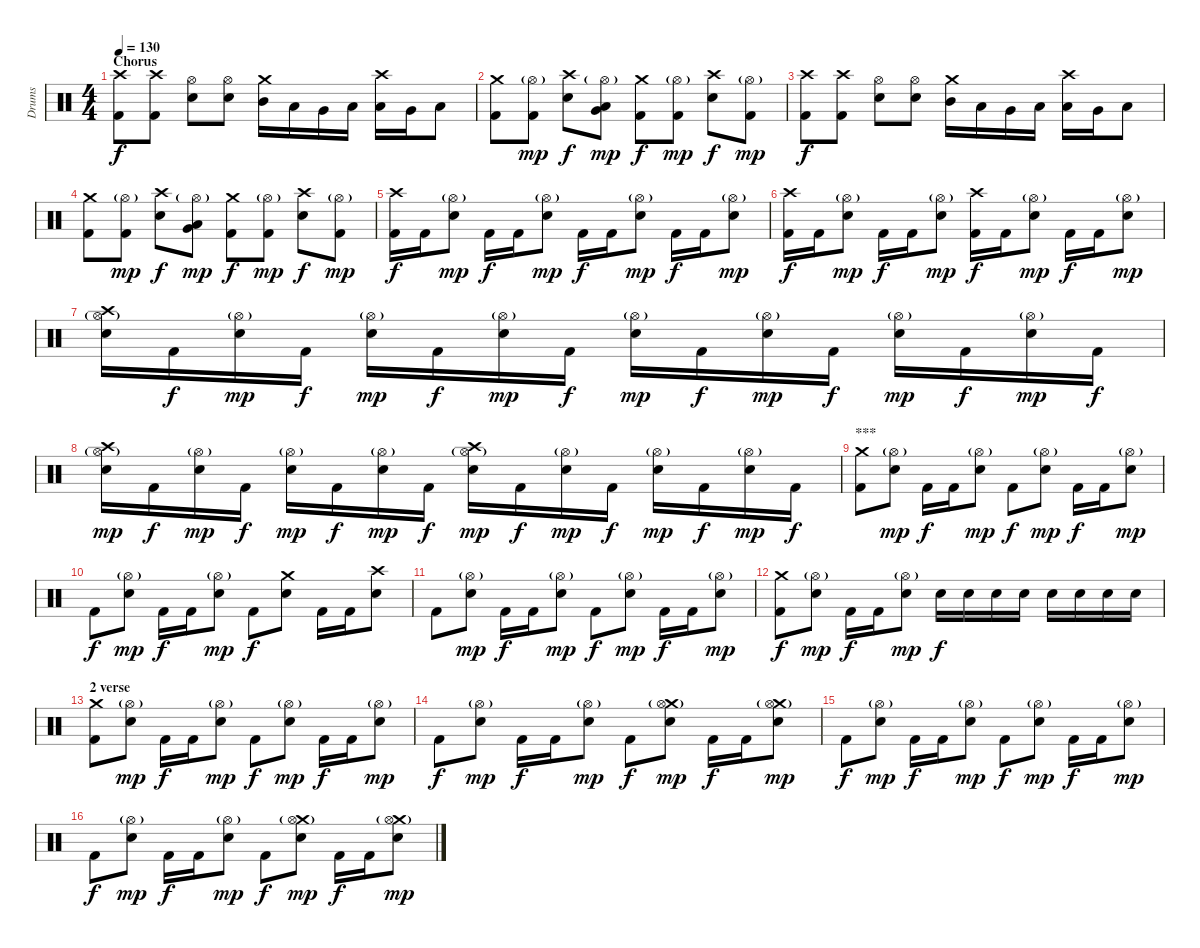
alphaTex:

\track ("Drums" "Drums") {instrument percussion}
\staff {score}
\articulation defaults
\ts (4 4)
\section ("" "Chorus")
\tempo 130
\clef neutral
\ks c
("Crash high (hit)" "Kick (hit) 2").8{dy f} ("Crash high (hit)" "Kick (hit) 2").8 ("Hi-Hat (open)" "Electric Snare (hit)").8 ("Hi-Hat (open)" "Electric Snare (hit)").8 ("Crash medium (hit)" "Mid Tom (hit)").16 "Low Tom (hit)".16 "Very Low Tom (hit)".16 "Low Floor Tom (hit)".16 ("Crash high (hit)" "Low Tom (hit)").16 "Very Low Tom (hit)".16 "Low Floor Tom (hit)".8 |
("Crash medium (hit)" "Kick (hit) 2").8 ("Hi-Hat (open)"{g} "Kick (hit) 2").8{dy mp} ("Crash high (hit)" "Electric Snare (hit)").8{dy f} ("Hi-Hat (open)"{g} "Low Tom (hit)" "Very Low Tom (hit)").8{dy mp} ("Crash medium (hit)" "Kick (hit) 2").8{dy f} ("Hi-Hat (open)"{g} "Kick (hit) 2").8{dy mp} ("Crash high (hit)" "Electric Snare (hit)").8{dy f} ("Hi-Hat (open)"{g} "Kick (hit) 2").8{dy mp} |
("Crash high (hit)" "Kick (hit) 2").8{dy f} ("Crash high (hit)" "Kick (hit) 2").8 ("Hi-Hat (open)" "Electric Snare (hit)").8 ("Hi-Hat (open)" "Electric Snare (hit)").8 ("Crash medium (hit)" "Mid Tom (hit)").16 "Low Tom (hit)".16 "Very Low Tom (hit)".16 "Low Floor Tom (hit)".16 ("Crash high (hit)" "Low Tom (hit)").16 "Very Low Tom (hit)".16 "Low Floor Tom (hit)".8 |
("Crash medium (hit)" "Kick (hit) 2").8 ("Hi-Hat (open)"{g} "Kick (hit) 2").8{dy mp} ("Crash high (hit)" "Electric Snare (hit)").8{dy f} ("Hi-Hat (open)"{g} "Low Tom (hit)" "Very Low Tom (hit)").8{dy mp} ("Crash medium (hit)" "Kick (hit) 2").8{dy f} ("Hi-Hat (open)"{g} "Kick (hit) 2").8{dy mp} ("Crash high (hit)" "Electric Snare (hit)").8{dy f} ("Hi-Hat (open)"{g} "Kick (hit) 2").8{dy mp} |
("Crash high (hit)" "Kick (hit) 2").16{dy f} "Kick (hit) 2".16 ("Hi-Hat (open)"{g} "Electric Snare (hit)").8{dy mp} "Kick (hit) 2".16{dy f} "Kick (hit) 2".16 ("Hi-Hat (open)"{g} "Electric Snare (hit)").8{dy mp} "Kick (hit) 2".16{dy f} "Kick (hit) 2".16 ("Hi-Hat (open)"{g} "Electric Snare (hit)").8{dy mp} "Kick (hit) 2".16{dy f} "Kick (hit) 2".16 ("Hi-Hat (open)"{g} "Electric Snare (hit)").8{dy mp} |
("Crash high (hit)" "Kick (hit) 2").16{dy f} "Kick (hit) 2".16 ("Hi-Hat (open)"{g} "Electric Snare (hit)").8{dy mp} "Kick (hit) 2".16{dy f} "Kick (hit) 2".16 ("Hi-Hat (open)"{g} "Electric Snare (hit)").8{dy mp} ("Crash high (hit)" "Kick (hit) 2").16{dy f} "Kick (hit) 2".16 ("Hi-Hat (open)"{g} "Electric Snare (hit)").8{dy mp} "Kick (hit) 2".16{dy f} "Kick (hit) 2".16 ("Hi-Hat (open)"{g} "Electric Snare (hit)").8{dy mp} |
("Hi-Hat (open)"{g} "Crash high (hit)" "Electric Snare (hit)").16 "Kick (hit) 2".16{dy f} ("Hi-Hat (open)"{g} "Electric Snare (hit)").16{dy mp} "Kick (hit) 2".16{dy f} ("Hi-Hat (open)"{g} "Electric Snare (hit)").16{dy mp} "Kick (hit) 2".16{dy f} ("Hi-Hat (open)"{g} "Electric Snare (hit)").16{dy mp} "Kick (hit) 2".16{dy f} ("Hi-Hat (open)"{g} "Electric Snare (hit)").16{dy mp} "Kick (hit) 2".16{dy f} ("Hi-Hat (open)"{g} "Electric Snare (hit)").16{dy mp} "Kick (hit) 2".16{dy f} ("Hi-Hat (open)"{g} "Electric Snare (hit)").16{dy mp} "Kick (hit) 2".16{dy f} ("Hi-Hat (open)"{g} "Electric Snare (hit)").16{dy mp} "Kick (hit) 2".16{dy f} |
("Hi-Hat (open)"{g} "Crash high (hit)" "Electric Snare (hit)").16{dy mp} "Kick (hit) 2".16{dy f} ("Hi-Hat (open)"{g} "Electric Snare (hit)").16{dy mp} "Kick (hit) 2".16{dy f} ("Hi-Hat (open)"{g} "Electric Snare (hit)").16{dy mp} "Kick (hit) 2".16{dy f} ("Hi-Hat (open)"{g} "Electric Snare (hit)").16{dy mp} "Kick (hit) 2".16{dy f} ("Hi-Hat (open)"{g} "Crash high (hit)" "Electric Snare (hit)").16{dy mp} "Kick (hit) 2".16{dy f} ("Hi-Hat (open)"{g} "Electric Snare (hit)").16{dy mp} "Kick (hit) 2".16{dy f} ("Hi-Hat (open)"{g} "Electric Snare (hit)").16{dy mp} "Kick (hit) 2".16{dy f} ("Hi-Hat (open)"{g} "Electric Snare (hit)").16{dy mp} "Kick (hit) 2".16{dy f} |
\section ("" "***")
("Crash medium (hit)" "Kick (hit) 2").8 ("Hi-Hat (open)"{g} "Electric Snare (hit)").8{dy mp} "Kick (hit) 2".16{dy f} "Kick (hit) 2".16 ("Hi-Hat (open)"{g} "Electric Snare (hit)").8{dy mp} "Kick (hit) 2".8{dy f} ("Hi-Hat (open)"{g} "Electric Snare (hit)").8{dy mp} "Kick (hit) 2".16{dy f} "Kick (hit) 2".16 ("Hi-Hat (open)"{g} "Electric Snare (hit)").8{dy mp} |
"Kick (hit) 2".8{dy f} ("Hi-Hat (open)"{g} "Electric Snare (hit)").8{dy mp} "Kick (hit) 2".16{dy f} "Kick (hit) 2".16 ("Hi-Hat (open)"{g} "Electric Snare (hit)").8{dy mp} "Kick (hit) 2".8{dy f} ("Crash medium (hit)" "Electric Snare (hit)").8 "Kick (hit) 2".16 "Kick (hit) 2".16 ("Crash high (hit)" "Electric Snare (hit)").8 |
"Kick (hit) 2".8 ("Hi-Hat (open)"{g} "Electric Snare (hit)").8{dy mp} "Kick (hit) 2".16{dy f} "Kick (hit) 2".16 ("Hi-Hat (open)"{g} "Electric Snare (hit)").8{dy mp} "Kick (hit) 2".8{dy f} ("Hi-Hat (open)"{g} "Electric Snare (hit)").8{dy mp} "Kick (hit) 2".16{dy f} "Kick (hit) 2".16 ("Hi-Hat (open)"{g} "Electric Snare (hit)").8{dy mp} |
("Crash medium (hit)" "Kick (hit) 2").8{dy f} ("Hi-Hat (open)"{g} "Electric Snare (hit)").8{dy mp} "Kick (hit) 2".16{dy f} "Kick (hit) 2".16 ("Hi-Hat (open)"{g} "Electric Snare (hit)").8{dy mp} "Electric Snare (hit)".16{dy f} "Electric Snare (hit)".16 "Electric Snare (hit)".16 "Electric Snare (hit)".16 "Electric Snare (hit)".16 "Electric Snare (hit)".16 "Electric Snare (hit)".16 "Electric Snare (hit)".16 |
\section ("" "2 verse")
("Crash medium (hit)" "Kick (hit) 2").8 ("Hi-Hat (open)"{g} "Electric Snare (hit)").8{dy mp} "Kick (hit) 2".16{dy f} "Kick (hit) 2".16 ("Hi-Hat (open)"{g} "Electric Snare (hit)").8{dy mp} "Kick (hit) 2".8{dy f} ("Hi-Hat (open)"{g} "Electric Snare (hit)").8{dy mp} "Kick (hit) 2".16{dy f} "Kick (hit) 2".16 ("Hi-Hat (open)"{g} "Electric Snare (hit)").8{dy mp} |
"Kick (hit) 2".8{dy f} ("Hi-Hat (open)"{g} "Electric Snare (hit)").8{dy mp} "Kick (hit) 2".16{dy f} "Kick (hit) 2".16 ("Hi-Hat (open)"{g} "Electric Snare (hit)").8{dy mp} "Kick (hit) 2".8{dy f} ("Crash medium (hit)"{g} "Hi-Hat (open)"{g} "Electric Snare (hit)").8{dy mp} "Kick (hit) 2".16{dy f} "Kick (hit) 2".16 ("Crash medium (hit)"{g} "Hi-Hat (open)"{g} "Electric Snare (hit)").8{dy mp} |
"Kick (hit) 2".8{dy f} ("Hi-Hat (open)"{g} "Electric Snare (hit)").8{dy mp} "Kick (hit) 2".16{dy f} "Kick (hit) 2".16 ("Hi-Hat (open)"{g} "Electric Snare (hit)").8{dy mp} "Kick (hit) 2".8{dy f} ("Hi-Hat (open)"{g} "Electric Snare (hit)").8{dy mp} "Kick (hit) 2".16{dy f} "Kick (hit) 2".16 ("Hi-Hat (open)"{g} "Electric Snare (hit)").8{dy mp} |
"Kick (hit) 2".8{dy f} ("Hi-Hat (open)"{g} "Electric Snare (hit)").8{dy mp} "Kick (hit) 2".16{dy f} "Kick (hit) 2".16 ("Hi-Hat (open)"{g} "Electric Snare (hit)").8{dy mp} "Kick (hit) 2".8{dy f} ("Crash medium (hit)"{g} "Hi-Hat (open)"{g} "Electric Snare (hit)").8{dy mp} "Kick (hit) 2".16{dy f} "Kick (hit) 2".16 ("Crash medium (hit)"{g} "Hi-Hat (open)"{g} "Electric Snare (hit)").8{dy mp}
